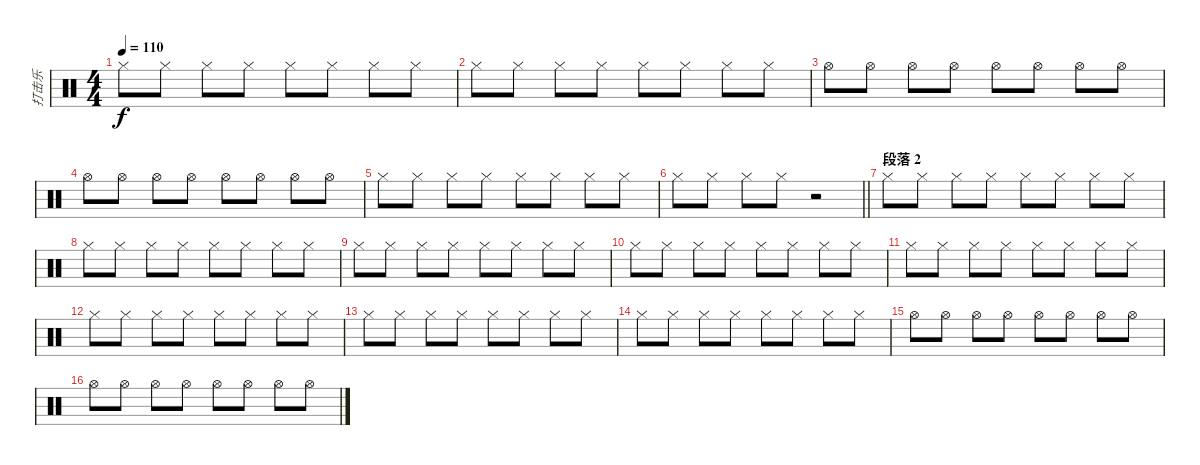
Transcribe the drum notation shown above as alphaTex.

\track ("打击乐" "打击乐") {instrument percussion}
\staff {score}
\articulation defaults
\ts (4 4)
\tempo 110
\clef neutral
\ks c "Hi-Hat (closed)".8{dy f} "Hi-Hat (closed)".8 "Hi-Hat (closed)".8 "Hi-Hat (closed)".8 "Hi-Hat (closed)".8 "Hi-Hat (closed)".8 "Hi-Hat (closed)".8 "Hi-Hat (closed)".8
|
"Hi-Hat (closed)".8 "Hi-Hat (closed)".8 "Hi-Hat (closed)".8 "Hi-Hat (closed)".8 "Hi-Hat (closed)".8 "Hi-Hat (closed)".8 "Hi-Hat (closed)".8 "Hi-Hat (closed)".8 |
"Hi-Hat (open)".8 "Hi-Hat (open)".8 "Hi-Hat (open)".8 "Hi-Hat (open)".8 "Hi-Hat (open)".8 "Hi-Hat (open)".8 "Hi-Hat (open)".8 "Hi-Hat (open)".8 |
"Hi-Hat (open)".8 "Hi-Hat (open)".8 "Hi-Hat (open)".8 "Hi-Hat (open)".8 "Hi-Hat (open)".8 "Hi-Hat (open)".8 "Hi-Hat (open)".8 "Hi-Hat (open)".8 |
"Hi-Hat (closed)".8 "Hi-Hat (closed)".8 "Hi-Hat (closed)".8 "Hi-Hat (closed)".8 "Hi-Hat (closed)".8 "Hi-Hat (closed)".8 "Hi-Hat (closed)".8 "Hi-Hat (closed)".8 |
\barLineRight lightlight "Hi-Hat (closed)".8 "Hi-Hat (closed)".8 "Hi-Hat (closed)".8 "Hi-Hat (closed)".8
r.2 |
\section ("" "段落 2")
"Hi-Hat (closed)".8 "Hi-Hat (closed)".8 "Hi-Hat (closed)".8 "Hi-Hat (closed)".8 "Hi-Hat (closed)".8 "Hi-Hat (closed)".8 "Hi-Hat (closed)".8 "Hi-Hat (closed)".8 |
"Hi-Hat (closed)".8 "Hi-Hat (closed)".8 "Hi-Hat (closed)".8 "Hi-Hat (closed)".8 "Hi-Hat (closed)".8 "Hi-Hat (closed)".8 "Hi-Hat (closed)".8 "Hi-Hat (closed)".8 |
"Hi-Hat (closed)".8 "Hi-Hat (closed)".8 "Hi-Hat (closed)".8 "Hi-Hat (closed)".8 "Hi-Hat (closed)".8 "Hi-Hat (closed)".8 "Hi-Hat (closed)".8 "Hi-Hat (closed)".8 |
"Hi-Hat (closed)".8 "Hi-Hat (closed)".8 "Hi-Hat (closed)".8 "Hi-Hat (closed)".8 "Hi-Hat (closed)".8 "Hi-Hat (closed)".8 "Hi-Hat (closed)".8 "Hi-Hat (closed)".8 |
"Hi-Hat (closed)".8 "Hi-Hat (closed)".8 "Hi-Hat (closed)".8 "Hi-Hat (closed)".8 "Hi-Hat (closed)".8 "Hi-Hat (closed)".8 "Hi-Hat (closed)".8 "Hi-Hat (closed)".8 |
"Hi-Hat (closed)".8 "Hi-Hat (closed)".8 "Hi-Hat (closed)".8 "Hi-Hat (closed)".8 "Hi-Hat (closed)".8 "Hi-Hat (closed)".8 "Hi-Hat (closed)".8 "Hi-Hat (closed)".8 |
"Hi-Hat (closed)".8 "Hi-Hat (closed)".8 "Hi-Hat (closed)".8 "Hi-Hat (closed)".8 "Hi-Hat (closed)".8 "Hi-Hat (closed)".8 "Hi-Hat (closed)".8 "Hi-Hat (closed)".8 |
"Hi-Hat (closed)".8 "Hi-Hat (closed)".8 "Hi-Hat (closed)".8 "Hi-Hat (closed)".8 "Hi-Hat (closed)".8 "Hi-Hat (closed)".8 "Hi-Hat (closed)".8 "Hi-Hat (closed)".8 |
"Hi-Hat (open)".8 "Hi-Hat (open)".8 "Hi-Hat (open)".8 "Hi-Hat (open)".8 "Hi-Hat (open)".8 "Hi-Hat (open)".8 "Hi-Hat (open)".8 "Hi-Hat (open)".8 |
"Hi-Hat (open)".8 "Hi-Hat (open)".8 "Hi-Hat (open)".8 "Hi-Hat (open)".8 "Hi-Hat (open)".8 "Hi-Hat (open)".8 "Hi-Hat (open)".8 "Hi-Hat (open)".8
